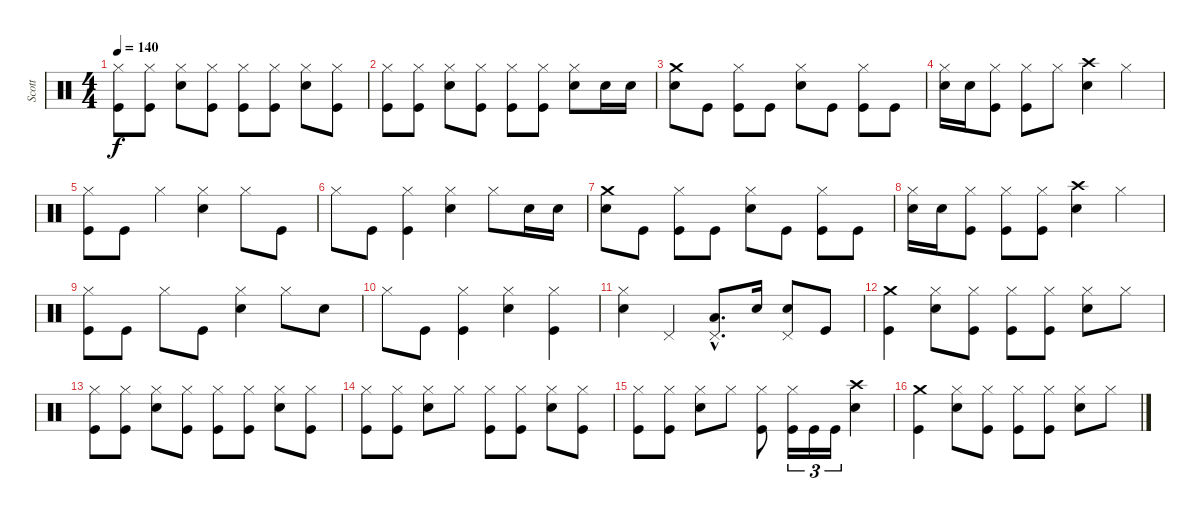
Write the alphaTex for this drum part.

\track ("Scott" "Scott") {instrument percussion}
\staff {score}
\articulation defaults
\ts (4 4)
\tempo 140
\clef neutral
\ks c
("Kick (hit)" "Hi-Hat (closed)").8{dy f} ("Kick (hit)" "Hi-Hat (closed)").8 ("Snare (hit) 2" "Hi-Hat (closed)").8 ("Kick (hit)" "Hi-Hat (closed)").8 ("Kick (hit)" "Hi-Hat (closed)").8 ("Kick (hit)" "Hi-Hat (closed)").8 ("Snare (hit) 2" "Hi-Hat (closed)").8 ("Kick (hit)" "Hi-Hat (closed)").8 |
("Kick (hit)" "Hi-Hat (closed)").8 ("Kick (hit)" "Hi-Hat (closed)").8 ("Snare (hit) 2" "Hi-Hat (closed)").8 ("Kick (hit)" "Hi-Hat (closed)").8 ("Kick (hit)" "Hi-Hat (closed)").8 ("Kick (hit)" "Hi-Hat (closed)").8 ("Snare (hit) 2" "Hi-Hat (closed)").8 "Snare (hit) 2".16 "Snare (hit) 2".16 |
("Snare (hit) 2" "Crash medium (hit)").8 "Kick (hit)".8 ("Kick (hit)" "Hi-Hat (closed)").8 "Kick (hit)".8 ("Snare (hit) 2" "Hi-Hat (closed)").8 "Kick (hit)".8 ("Kick (hit)" "Hi-Hat (closed)").8 "Kick (hit)".8 |
("Snare (hit) 2" "Hi-Hat (closed)").16 "Snare (hit) 2".16 ("Kick (hit)" "Hi-Hat (closed)").8 ("Kick (hit)" "Hi-Hat (closed)").8 "Hi-Hat (closed)".8 ("Snare (hit) 2" "Crash high (hit)").4 "Hi-Hat (closed)".4 |
("Kick (hit)" "Hi-Hat (closed)").8 "Kick (hit)".8 "Hi-Hat (closed)".4 ("Snare (hit) 2" "Hi-Hat (closed)").4 "Hi-Hat (closed)".8 "Kick (hit)".8 |
"Hi-Hat (closed)".8 "Kick (hit)".8 ("Kick (hit)" "Hi-Hat (closed)").4 ("Snare (hit) 2" "Hi-Hat (closed)").4 "Hi-Hat (closed)".8 "Snare (hit) 2".16 "Snare (hit) 2".16 |
("Snare (hit) 2" "Crash medium (hit)").8 "Kick (hit)".8 ("Kick (hit)" "Hi-Hat (closed)").8 "Kick (hit)".8 ("Snare (hit) 2" "Hi-Hat (closed)").8 "Kick (hit)".8 ("Kick (hit)" "Hi-Hat (closed)").8 "Kick (hit)".8 |
("Snare (hit) 2" "Hi-Hat (closed)").16 "Snare (hit) 2".16 ("Kick (hit)" "Hi-Hat (closed)").8 ("Kick (hit)" "Hi-Hat (closed)").8 ("Kick (hit)" "Hi-Hat (closed)").8 ("Snare (hit) 2" "Crash high (hit)").4 "Hi-Hat (closed)".4 |
("Kick (hit)" "Hi-Hat (closed)").8 "Kick (hit)".8 "Hi-Hat (closed)".8 "Kick (hit)".8 ("Snare (hit) 2" "Hi-Hat (closed)").4 "Hi-Hat (closed)".8 "Snare (hit) 2".8 |
"Hi-Hat (closed)".8 "Kick (hit)".8 ("Kick (hit)" "Hi-Hat (closed)").4 ("Snare (hit) 2" "Hi-Hat (closed)").4 ("Kick (hit)" "Hi-Hat (closed)").4 |
("Snare (hit) 2" "Hi-Hat (closed)").4 "Pedal Hi-Hat (hit)".4 ("Low Tom (hit)"{hac} "Pedal Hi-Hat (hit)"{hac}).8{d} "Snare (hit) 2".16 ("Snare (hit) 2" "Pedal Hi-Hat (hit)").8 "Kick (hit)".8 |
("Kick (hit)" "Crash medium (hit)").4 ("Snare (hit) 2" "Hi-Hat (closed)").8 ("Kick (hit)" "Hi-Hat (closed)").8 ("Kick (hit)" "Hi-Hat (closed)").8 ("Kick (hit)" "Hi-Hat (closed)").8 ("Snare (hit) 2" "Hi-Hat (closed)").8 "Hi-Hat (closed)".8 |
("Kick (hit)" "Hi-Hat (closed)").8 ("Kick (hit)" "Hi-Hat (closed)").8 ("Snare (hit) 2" "Hi-Hat (closed)").8 ("Kick (hit)" "Hi-Hat (closed)").8 ("Kick (hit)" "Hi-Hat (closed)").8 ("Kick (hit)" "Hi-Hat (closed)").8 ("Snare (hit) 2" "Hi-Hat (closed)").8 ("Kick (hit)" "Hi-Hat (closed)").8 |
("Kick (hit)" "Hi-Hat (closed)").8 ("Kick (hit)" "Hi-Hat (closed)").8 ("Snare (hit) 2" "Hi-Hat (closed)").8 "Hi-Hat (closed)".8 ("Kick (hit)" "Hi-Hat (closed)").8 ("Kick (hit)" "Hi-Hat (closed)").8 ("Snare (hit) 2" "Hi-Hat (closed)").8 ("Kick (hit)" "Hi-Hat (closed)").8 |
("Kick (hit)" "Hi-Hat (closed)").8 ("Kick (hit)" "Hi-Hat (closed)").8 ("Snare (hit) 2" "Hi-Hat (closed)").8 "Hi-Hat (closed)".8 ("Kick (hit)" "Hi-Hat (closed)").8 ("Kick (hit)" "Hi-Hat (closed)").16{tu (3 2)} "Kick (hit)".16{tu (3 2)} "Kick (hit)".16{tu (3 2)} ("Snare (hit) 2" "Crash high (hit)").4 |
("Kick (hit)" "Crash medium (hit)").4 ("Snare (hit) 2" "Hi-Hat (closed)").8 ("Kick (hit)" "Hi-Hat (closed)").8 ("Kick (hit)" "Hi-Hat (closed)").8 ("Kick (hit)" "Hi-Hat (closed)").8 ("Snare (hit) 2" "Hi-Hat (closed)").8 "Hi-Hat (closed)".8
